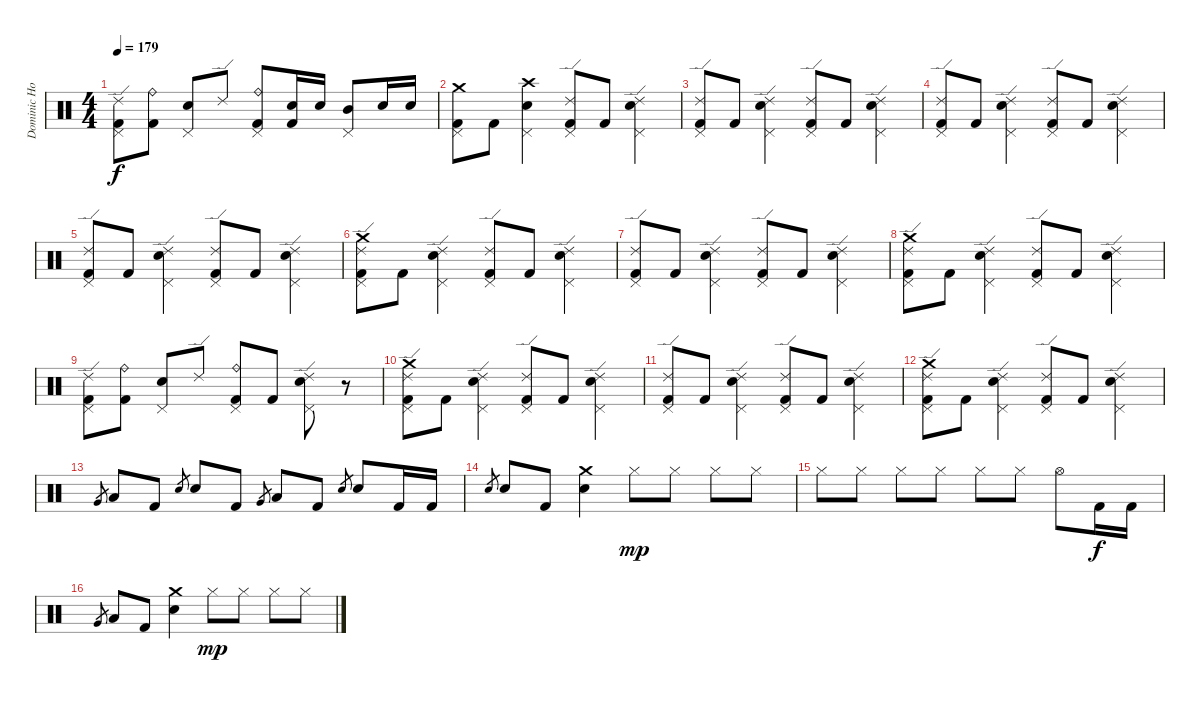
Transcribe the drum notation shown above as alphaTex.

\track ("Dominic Howard" "Dominic Ho") {instrument percussion}
\staff {score}
\articulation defaults
\ts (4 4)
\tempo 179
\clef neutral
\ks c
("Ride (edge) 2" "Pedal Hi-Hat (hit)" "Kick (hit) 2").8{dy f} ("Ride (bell)" "Kick (hit) 2").8 ("Electric Snare (hit)" "Pedal Hi-Hat (hit)").8 "Ride (edge) 2".8 ("Ride (bell)" "Pedal Hi-Hat (hit)" "Kick (hit) 2").8 ("Electric Snare (hit)" "Kick (hit) 2").16 "Electric Snare (hit)".16 ("Mid Tom (hit)" "Pedal Hi-Hat (hit)").8 "Electric Snare (hit)".16 "Electric Snare (hit)".16 |
("Crash medium (hit)" "Pedal Hi-Hat (hit)" "Kick (hit) 2").8 "Kick (hit) 2".8 ("Crash high (hit)" "Electric Snare (hit)" "Pedal Hi-Hat (hit)").4 ("Ride (edge) 2" "Pedal Hi-Hat (hit)" "Kick (hit) 2").8 "Kick (hit) 2".8 ("Ride (edge) 2" "Electric Snare (hit)" "Pedal Hi-Hat (hit)").4 |
("Ride (edge) 2" "Pedal Hi-Hat (hit)" "Kick (hit) 2").8 "Kick (hit) 2".8 ("Ride (edge) 2" "Electric Snare (hit)" "Pedal Hi-Hat (hit)").4 ("Ride (edge) 2" "Pedal Hi-Hat (hit)" "Kick (hit) 2").8 "Kick (hit) 2".8 ("Ride (edge) 2" "Electric Snare (hit)" "Pedal Hi-Hat (hit)").4 |
("Ride (edge) 2" "Pedal Hi-Hat (hit)" "Kick (hit) 2").8 "Kick (hit) 2".8 ("Ride (edge) 2" "Electric Snare (hit)" "Pedal Hi-Hat (hit)").4 ("Ride (edge) 2" "Pedal Hi-Hat (hit)" "Kick (hit) 2").8 "Kick (hit) 2".8 ("Ride (edge) 2" "Electric Snare (hit)" "Pedal Hi-Hat (hit)").4 |
("Ride (edge) 2" "Pedal Hi-Hat (hit)" "Kick (hit) 2").8 "Kick (hit) 2".8 ("Ride (edge) 2" "Electric Snare (hit)" "Pedal Hi-Hat (hit)").4 ("Ride (edge) 2" "Pedal Hi-Hat (hit)" "Kick (hit) 2").8 "Kick (hit) 2".8 ("Ride (edge) 2" "Electric Snare (hit)" "Pedal Hi-Hat (hit)").4 |
("Crash medium (hit)" "Ride (edge) 2" "Pedal Hi-Hat (hit)" "Kick (hit) 2").8 "Kick (hit) 2".8 ("Ride (edge) 2" "Electric Snare (hit)" "Pedal Hi-Hat (hit)").4 ("Ride (edge) 2" "Pedal Hi-Hat (hit)" "Kick (hit) 2").8 "Kick (hit) 2".8 ("Ride (edge) 2" "Electric Snare (hit)" "Pedal Hi-Hat (hit)").4 |
("Ride (edge) 2" "Pedal Hi-Hat (hit)" "Kick (hit) 2").8 "Kick (hit) 2".8 ("Ride (edge) 2" "Electric Snare (hit)" "Pedal Hi-Hat (hit)").4 ("Ride (edge) 2" "Pedal Hi-Hat (hit)" "Kick (hit) 2").8 "Kick (hit) 2".8 ("Ride (edge) 2" "Electric Snare (hit)" "Pedal Hi-Hat (hit)").4 |
("Crash medium (hit)" "Ride (edge) 2" "Pedal Hi-Hat (hit)" "Kick (hit) 2").8 "Kick (hit) 2".8 ("Ride (edge) 2" "Electric Snare (hit)" "Pedal Hi-Hat (hit)").4 ("Ride (edge) 2" "Pedal Hi-Hat (hit)" "Kick (hit) 2").8 "Kick (hit) 2".8 ("Ride (edge) 2" "Electric Snare (hit)" "Pedal Hi-Hat (hit)").4 |
("Ride (edge) 2" "Pedal Hi-Hat (hit)" "Kick (hit) 2").8 ("Ride (bell)" "Kick (hit) 2").8 ("Electric Snare (hit)" "Pedal Hi-Hat (hit)").8 "Ride (edge) 2".8 ("Ride (bell)" "Pedal Hi-Hat (hit)" "Kick (hit) 2").8 "Kick (hit) 2".8 ("Ride (edge) 2" "Electric Snare (hit)" "Pedal Hi-Hat (hit)").8 r.8 |
("Crash medium (hit)" "Ride (edge) 2" "Pedal Hi-Hat (hit)" "Kick (hit) 2").8 "Kick (hit) 2".8 ("Ride (edge) 2" "Electric Snare (hit)" "Pedal Hi-Hat (hit)").4 ("Ride (edge) 2" "Pedal Hi-Hat (hit)" "Kick (hit) 2").8 "Kick (hit) 2".8 ("Ride (edge) 2" "Electric Snare (hit)" "Pedal Hi-Hat (hit)").4 |
("Ride (edge) 2" "Pedal Hi-Hat (hit)" "Kick (hit) 2").8 "Kick (hit) 2".8 ("Ride (edge) 2" "Electric Snare (hit)" "Pedal Hi-Hat (hit)").4 ("Ride (edge) 2" "Pedal Hi-Hat (hit)" "Kick (hit) 2").8 "Kick (hit) 2".8 ("Ride (edge) 2" "Electric Snare (hit)" "Pedal Hi-Hat (hit)").4 |
("Crash medium (hit)" "Ride (edge) 2" "Pedal Hi-Hat (hit)" "Kick (hit) 2").8 "Kick (hit) 2".8 ("Ride (edge) 2" "Electric Snare (hit)" "Pedal Hi-Hat (hit)").4 ("Ride (edge) 2" "Pedal Hi-Hat (hit)" "Kick (hit) 2").8 "Kick (hit) 2".8 ("Ride (edge) 2" "Electric Snare (hit)" "Pedal Hi-Hat (hit)").4 |
"Very Low Tom (hit)".8{gr} "Low Floor Tom (hit)".8 "Kick (hit) 2".8 "Electric Snare (hit)".8{gr} "Electric Snare (hit)".8 "Kick (hit) 2".8 "Very Low Tom (hit)".8{gr} "Low Floor Tom (hit)".8 "Kick (hit) 2".8 "Electric Snare (hit)".8{gr} "Electric Snare (hit)".8 "Kick (hit) 2".16 "Kick (hit) 2".16 |
"Electric Snare (hit)".8{gr} "Electric Snare (hit)".8 "Kick (hit) 2".8 ("Crash medium (hit)" "Electric Snare (hit)").4 "Hi-Hat (closed)".8{dy mp} "Hi-Hat (closed)".8 "Hi-Hat (closed)".8 "Hi-Hat (closed)".8 |
"Hi-Hat (closed)".8 "Hi-Hat (closed)".8 "Hi-Hat (closed)".8 "Hi-Hat (closed)".8 "Hi-Hat (closed)".8 "Hi-Hat (closed)".8 "Hi-Hat (open)".8 "Kick (hit) 2".16{dy f} "Kick (hit) 2".16 |
"Very Low Tom (hit)".8{gr} "Low Floor Tom (hit)".8 "Kick (hit) 2".8 ("Crash medium (hit)" "Electric Snare (hit)").4 "Hi-Hat (closed)".8{dy mp} "Hi-Hat (closed)".8 "Hi-Hat (closed)".8 "Hi-Hat (closed)".8
